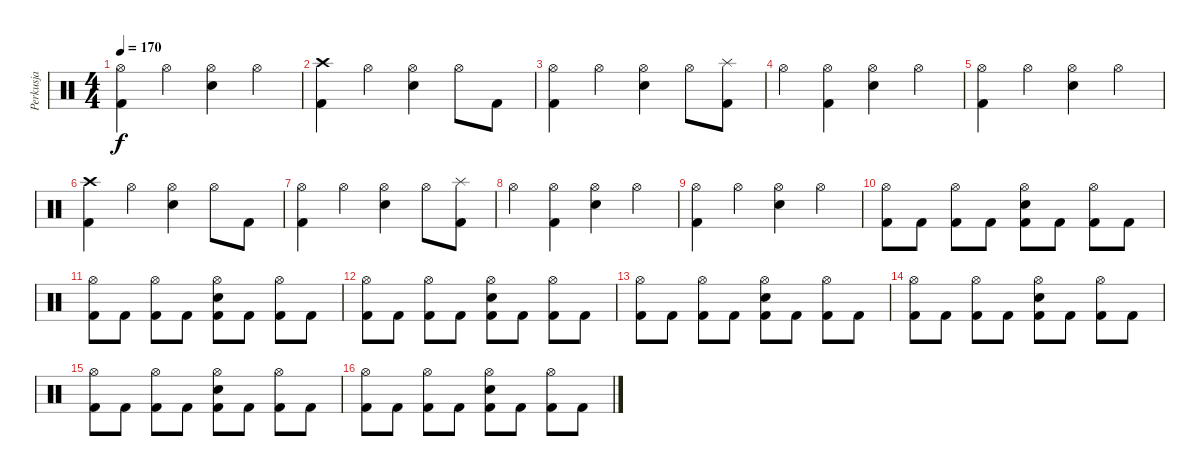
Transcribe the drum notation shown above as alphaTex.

\track ("Perkusja" "Perkusja") {instrument percussion}
\staff {score}
\articulation defaults
\ts (4 4)
\tempo 170
\clef neutral
\ks c
("Hi-Hat (open)" "Kick (hit) 2").4{dy f} "Hi-Hat (open)".4 ("Hi-Hat (open)" "Electric Snare (hit)").4 "Hi-Hat (open)".4 |
("Crash high (hit)" "Kick (hit) 2").4 "Hi-Hat (open)".4 ("Hi-Hat (open)" "Electric Snare (hit)").4 "Hi-Hat (open)".8 "Kick (hit) 2".8 |
("Hi-Hat (open)" "Kick (hit) 2").4 "Hi-Hat (open)".4 ("Hi-Hat (open)" "Electric Snare (hit)").4 "Hi-Hat (open)".8 ("Splash (hit)" "Kick (hit) 2").8 |
"Hi-Hat (open)".4 ("Hi-Hat (open)" "Kick (hit) 2").4 ("Hi-Hat (open)" "Electric Snare (hit)").4 "Hi-Hat (open)".4 |
("Hi-Hat (open)" "Kick (hit) 2").4 "Hi-Hat (open)".4 ("Hi-Hat (open)" "Electric Snare (hit)").4 "Hi-Hat (open)".4 |
("Crash high (hit)" "Kick (hit) 2").4 "Hi-Hat (open)".4 ("Hi-Hat (open)" "Electric Snare (hit)").4 "Hi-Hat (open)".8 "Kick (hit) 2".8 |
("Hi-Hat (open)" "Kick (hit) 2").4 "Hi-Hat (open)".4 ("Hi-Hat (open)" "Electric Snare (hit)").4 "Hi-Hat (open)".8 ("Splash (hit)" "Kick (hit) 2").8 |
"Hi-Hat (open)".4 ("Hi-Hat (open)" "Kick (hit) 2").4 ("Hi-Hat (open)" "Electric Snare (hit)").4 "Hi-Hat (open)".4 |
("Hi-Hat (open)" "Kick (hit) 2").4 "Hi-Hat (open)".4 ("Hi-Hat (open)" "Electric Snare (hit)").4 "Hi-Hat (open)".4 |
("Hi-Hat (open)" "Kick (hit) 2").8 "Kick (hit) 2".8 ("Hi-Hat (open)" "Kick (hit) 2").8 "Kick (hit) 2".8 ("Hi-Hat (open)" "Electric Snare (hit)" "Kick (hit) 2").8 "Kick (hit) 2".8 ("Hi-Hat (open)" "Kick (hit) 2").8 "Kick (hit) 2".8 |
("Hi-Hat (open)" "Kick (hit) 2").8 "Kick (hit) 2".8 ("Hi-Hat (open)" "Kick (hit) 2").8 "Kick (hit) 2".8 ("Hi-Hat (open)" "Electric Snare (hit)" "Kick (hit) 2").8 "Kick (hit) 2".8 ("Hi-Hat (open)" "Kick (hit) 2").8 "Kick (hit) 2".8 |
("Hi-Hat (open)" "Kick (hit) 2").8 "Kick (hit) 2".8 ("Hi-Hat (open)" "Kick (hit) 2").8 "Kick (hit) 2".8 ("Hi-Hat (open)" "Electric Snare (hit)" "Kick (hit) 2").8 "Kick (hit) 2".8 ("Hi-Hat (open)" "Kick (hit) 2").8 "Kick (hit) 2".8 |
("Hi-Hat (open)" "Kick (hit) 2").8 "Kick (hit) 2".8 ("Hi-Hat (open)" "Kick (hit) 2").8 "Kick (hit) 2".8 ("Hi-Hat (open)" "Electric Snare (hit)" "Kick (hit) 2").8 "Kick (hit) 2".8 ("Hi-Hat (open)" "Kick (hit) 2").8 "Kick (hit) 2".8 |
("Hi-Hat (open)" "Kick (hit) 2").8 "Kick (hit) 2".8 ("Hi-Hat (open)" "Kick (hit) 2").8 "Kick (hit) 2".8 ("Hi-Hat (open)" "Electric Snare (hit)" "Kick (hit) 2").8 "Kick (hit) 2".8 ("Hi-Hat (open)" "Kick (hit) 2").8 "Kick (hit) 2".8 |
("Hi-Hat (open)" "Kick (hit) 2").8 "Kick (hit) 2".8 ("Hi-Hat (open)" "Kick (hit) 2").8 "Kick (hit) 2".8 ("Hi-Hat (open)" "Electric Snare (hit)" "Kick (hit) 2").8 "Kick (hit) 2".8 ("Hi-Hat (open)" "Kick (hit) 2").8 "Kick (hit) 2".8 |
("Hi-Hat (open)" "Kick (hit) 2").8 "Kick (hit) 2".8 ("Hi-Hat (open)" "Kick (hit) 2").8 "Kick (hit) 2".8 ("Hi-Hat (open)" "Electric Snare (hit)" "Kick (hit) 2").8 "Kick (hit) 2".8 ("Hi-Hat (open)" "Kick (hit) 2").8 "Kick (hit) 2".8
